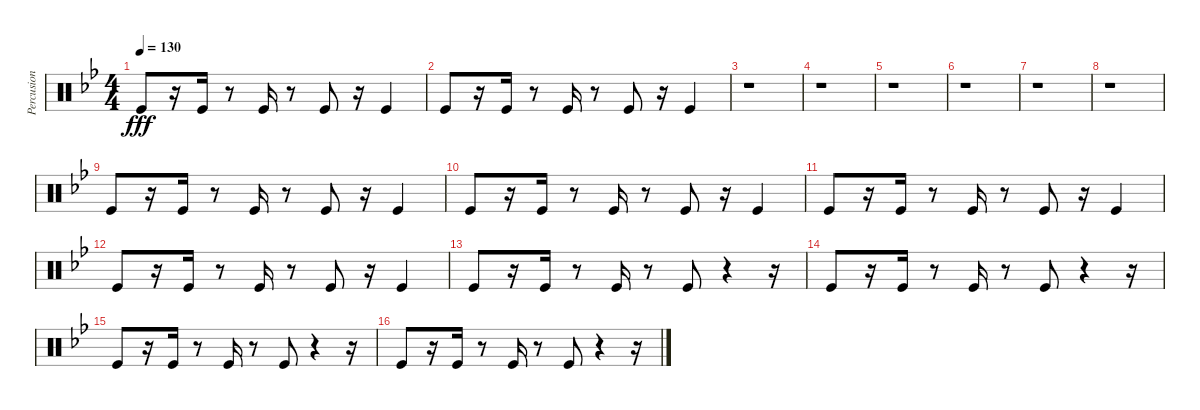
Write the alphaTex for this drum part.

\track ("Percusion II" "Percusion ") {instrument percussion}
\staff {score}
\articulation defaults
\ts (4 4)
\tempo 130
\clef neutral
\ks gminor "Kick (hit)".8{dy fff}
r.16 "Kick (hit)".16 r.8 "Kick (hit)".16 r.8 "Kick (hit)".8 r.16 "Kick (hit)".4 |
"Kick (hit)".8 r.16 "Kick (hit)".16 r.8 "Kick (hit)".16 r.8 "Kick (hit)".8 r.16 "Kick (hit)".4 |
r.1 |
r.1 |
r.1 |
r.1 |
r.1 |
r.1 |
"Kick (hit)".8 r.16 "Kick (hit)".16 r.8 "Kick (hit)".16 r.8 "Kick (hit)".8 r.16 "Kick (hit)".4 |
"Kick (hit)".8 r.16 "Kick (hit)".16 r.8 "Kick (hit)".16 r.8 "Kick (hit)".8 r.16 "Kick (hit)".4 |
"Kick (hit)".8 r.16 "Kick (hit)".16 r.8 "Kick (hit)".16 r.8 "Kick (hit)".8 r.16 "Kick (hit)".4 |
"Kick (hit)".8 r.16 "Kick (hit)".16 r.8 "Kick (hit)".16 r.8 "Kick (hit)".8 r.16 "Kick (hit)".4 |
"Kick (hit)".8 r.16 "Kick (hit)".16 r.8 "Kick (hit)".16 r.8 "Kick (hit)".8 r.4 r.16 |
"Kick (hit)".8 r.16 "Kick (hit)".16 r.8 "Kick (hit)".16 r.8 "Kick (hit)".8 r.4 r.16 |
"Kick (hit)".8 r.16 "Kick (hit)".16 r.8 "Kick (hit)".16 r.8 "Kick (hit)".8 r.4 r.16 |
"Kick (hit)".8 r.16 "Kick (hit)".16 r.8 "Kick (hit)".16 r.8 "Kick (hit)".8 r.4 r.16
